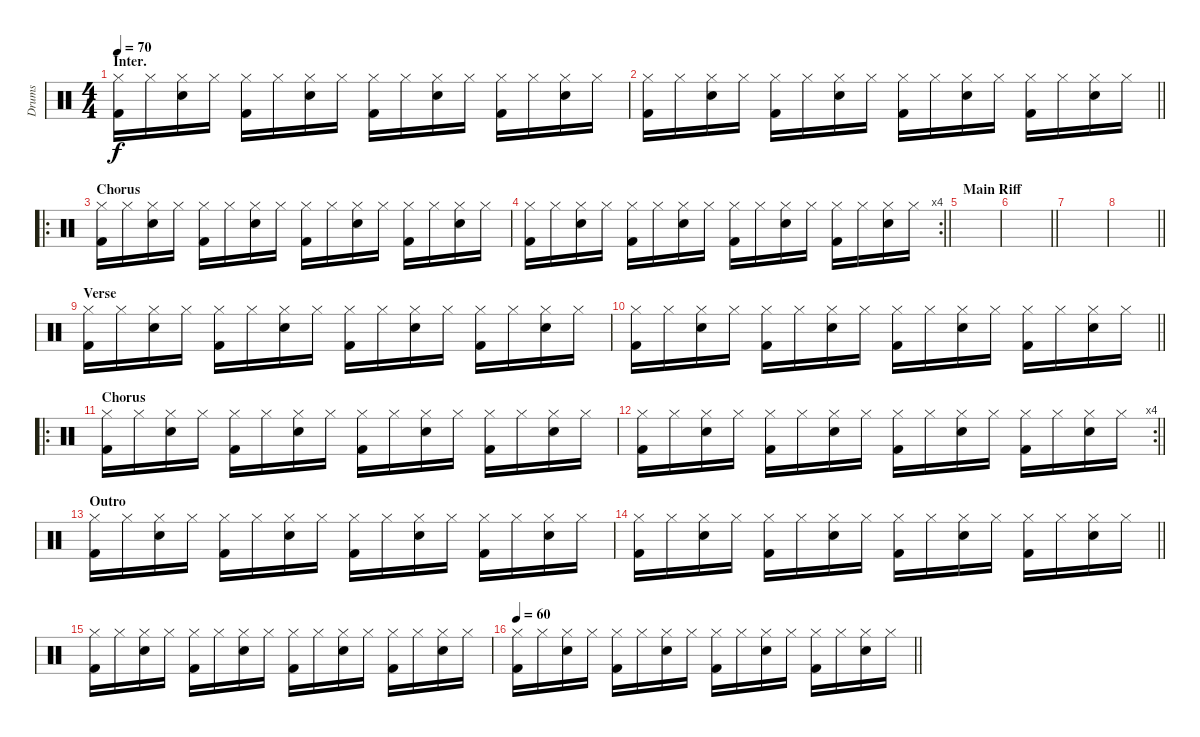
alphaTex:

\track ("Drums" "Drums") {instrument percussion}
\staff {score}
\articulation defaults
\ts (4 4)
\section ("" "Inter.")
\tempo 70
\clef neutral
\ks c
("Hi-Hat (closed)" "Kick (hit) 2").16{dy f} "Hi-Hat (closed)".16 ("Hi-Hat (closed)" "Electric Snare (hit)").16 "Hi-Hat (closed)".16 ("Hi-Hat (closed)" "Kick (hit) 2").16 "Hi-Hat (closed)".16 ("Hi-Hat (closed)" "Electric Snare (hit)").16 "Hi-Hat (closed)".16 ("Hi-Hat (closed)" "Kick (hit) 2").16 "Hi-Hat (closed)".16 ("Hi-Hat (closed)" "Electric Snare (hit)").16 "Hi-Hat (closed)".16 ("Hi-Hat (closed)" "Kick (hit) 2").16 "Hi-Hat (closed)".16 ("Hi-Hat (closed)" "Electric Snare (hit)").16 "Hi-Hat (closed)".16 |
\barLineRight lightlight
("Hi-Hat (closed)" "Kick (hit) 2").16 "Hi-Hat (closed)".16 ("Hi-Hat (closed)" "Electric Snare (hit)").16 "Hi-Hat (closed)".16 ("Hi-Hat (closed)" "Kick (hit) 2").16 "Hi-Hat (closed)".16 ("Hi-Hat (closed)" "Electric Snare (hit)").16 "Hi-Hat (closed)".16 ("Hi-Hat (closed)" "Kick (hit) 2").16 "Hi-Hat (closed)".16 ("Hi-Hat (closed)" "Electric Snare (hit)").16 "Hi-Hat (closed)".16 ("Hi-Hat (closed)" "Kick (hit) 2").16 "Hi-Hat (closed)".16 ("Hi-Hat (closed)" "Electric Snare (hit)").16 "Hi-Hat (closed)".16 |
\ro
\section ("" "Chorus")
("Hi-Hat (closed)" "Kick (hit) 2").16 "Hi-Hat (closed)".16 ("Hi-Hat (closed)" "Electric Snare (hit)").16 "Hi-Hat (closed)".16 ("Hi-Hat (closed)" "Kick (hit) 2").16 "Hi-Hat (closed)".16 ("Hi-Hat (closed)" "Electric Snare (hit)").16 "Hi-Hat (closed)".16 ("Hi-Hat (closed)" "Kick (hit) 2").16 "Hi-Hat (closed)".16 ("Hi-Hat (closed)" "Electric Snare (hit)").16 "Hi-Hat (closed)".16 ("Hi-Hat (closed)" "Kick (hit) 2").16 "Hi-Hat (closed)".16 ("Hi-Hat (closed)" "Electric Snare (hit)").16 "Hi-Hat (closed)".16 |
\rc 4
\barLineRight lightlight
("Hi-Hat (closed)" "Kick (hit) 2").16 "Hi-Hat (closed)".16 ("Hi-Hat (closed)" "Electric Snare (hit)").16 "Hi-Hat (closed)".16 ("Hi-Hat (closed)" "Kick (hit) 2").16 "Hi-Hat (closed)".16 ("Hi-Hat (closed)" "Electric Snare (hit)").16 "Hi-Hat (closed)".16 ("Hi-Hat (closed)" "Kick (hit) 2").16 "Hi-Hat (closed)".16 ("Hi-Hat (closed)" "Electric Snare (hit)").16 "Hi-Hat (closed)".16 ("Hi-Hat (closed)" "Kick (hit) 2").16 "Hi-Hat (closed)".16 ("Hi-Hat (closed)" "Electric Snare (hit)").16 "Hi-Hat (closed)".16 |
\section ("" "Main Riff")
|
\barLineRight lightlight
|
|
\barLineRight lightlight
|
\section ("" "Verse")
("Hi-Hat (closed)" "Kick (hit) 2").16 "Hi-Hat (closed)".16 ("Hi-Hat (closed)" "Electric Snare (hit)").16 "Hi-Hat (closed)".16 ("Hi-Hat (closed)" "Kick (hit) 2").16 "Hi-Hat (closed)".16 ("Hi-Hat (closed)" "Electric Snare (hit)").16 "Hi-Hat (closed)".16 ("Hi-Hat (closed)" "Kick (hit) 2").16 "Hi-Hat (closed)".16 ("Hi-Hat (closed)" "Electric Snare (hit)").16 "Hi-Hat (closed)".16 ("Hi-Hat (closed)" "Kick (hit) 2").16 "Hi-Hat (closed)".16 ("Hi-Hat (closed)" "Electric Snare (hit)").16 "Hi-Hat (closed)".16 |
\barLineRight lightlight
("Hi-Hat (closed)" "Kick (hit) 2").16 "Hi-Hat (closed)".16 ("Hi-Hat (closed)" "Electric Snare (hit)").16 "Hi-Hat (closed)".16 ("Hi-Hat (closed)" "Kick (hit) 2").16 "Hi-Hat (closed)".16 ("Hi-Hat (closed)" "Electric Snare (hit)").16 "Hi-Hat (closed)".16 ("Hi-Hat (closed)" "Kick (hit) 2").16 "Hi-Hat (closed)".16 ("Hi-Hat (closed)" "Electric Snare (hit)").16 "Hi-Hat (closed)".16 ("Hi-Hat (closed)" "Kick (hit) 2").16 "Hi-Hat (closed)".16 ("Hi-Hat (closed)" "Electric Snare (hit)").16 "Hi-Hat (closed)".16 |
\ro
\section ("" "Chorus")
("Hi-Hat (closed)" "Kick (hit) 2").16 "Hi-Hat (closed)".16 ("Hi-Hat (closed)" "Electric Snare (hit)").16 "Hi-Hat (closed)".16 ("Hi-Hat (closed)" "Kick (hit) 2").16 "Hi-Hat (closed)".16 ("Hi-Hat (closed)" "Electric Snare (hit)").16 "Hi-Hat (closed)".16 ("Hi-Hat (closed)" "Kick (hit) 2").16 "Hi-Hat (closed)".16 ("Hi-Hat (closed)" "Electric Snare (hit)").16 "Hi-Hat (closed)".16 ("Hi-Hat (closed)" "Kick (hit) 2").16 "Hi-Hat (closed)".16 ("Hi-Hat (closed)" "Electric Snare (hit)").16 "Hi-Hat (closed)".16 |
\rc 4
\barLineRight lightlight
("Hi-Hat (closed)" "Kick (hit) 2").16 "Hi-Hat (closed)".16 ("Hi-Hat (closed)" "Electric Snare (hit)").16 "Hi-Hat (closed)".16 ("Hi-Hat (closed)" "Kick (hit) 2").16 "Hi-Hat (closed)".16 ("Hi-Hat (closed)" "Electric Snare (hit)").16 "Hi-Hat (closed)".16 ("Hi-Hat (closed)" "Kick (hit) 2").16 "Hi-Hat (closed)".16 ("Hi-Hat (closed)" "Electric Snare (hit)").16 "Hi-Hat (closed)".16 ("Hi-Hat (closed)" "Kick (hit) 2").16 "Hi-Hat (closed)".16 ("Hi-Hat (closed)" "Electric Snare (hit)").16 "Hi-Hat (closed)".16 |
\section ("" "Outro")
("Hi-Hat (closed)" "Kick (hit) 2").16 "Hi-Hat (closed)".16 ("Hi-Hat (closed)" "Electric Snare (hit)").16 "Hi-Hat (closed)".16 ("Hi-Hat (closed)" "Kick (hit) 2").16 "Hi-Hat (closed)".16 ("Hi-Hat (closed)" "Electric Snare (hit)").16 "Hi-Hat (closed)".16 ("Hi-Hat (closed)" "Kick (hit) 2").16 "Hi-Hat (closed)".16 ("Hi-Hat (closed)" "Electric Snare (hit)").16 "Hi-Hat (closed)".16 ("Hi-Hat (closed)" "Kick (hit) 2").16 "Hi-Hat (closed)".16 ("Hi-Hat (closed)" "Electric Snare (hit)").16 "Hi-Hat (closed)".16 |
\barLineRight lightlight
("Hi-Hat (closed)" "Kick (hit) 2").16 "Hi-Hat (closed)".16 ("Hi-Hat (closed)" "Electric Snare (hit)").16 "Hi-Hat (closed)".16 ("Hi-Hat (closed)" "Kick (hit) 2").16 "Hi-Hat (closed)".16 ("Hi-Hat (closed)" "Electric Snare (hit)").16 "Hi-Hat (closed)".16 ("Hi-Hat (closed)" "Kick (hit) 2").16 "Hi-Hat (closed)".16 ("Hi-Hat (closed)" "Electric Snare (hit)").16 "Hi-Hat (closed)".16 ("Hi-Hat (closed)" "Kick (hit) 2").16 "Hi-Hat (closed)".16 ("Hi-Hat (closed)" "Electric Snare (hit)").16 "Hi-Hat (closed)".16 |
("Hi-Hat (closed)" "Kick (hit) 2").16 "Hi-Hat (closed)".16 ("Hi-Hat (closed)" "Electric Snare (hit)").16 "Hi-Hat (closed)".16 ("Hi-Hat (closed)" "Kick (hit) 2").16 "Hi-Hat (closed)".16 ("Hi-Hat (closed)" "Electric Snare (hit)").16 "Hi-Hat (closed)".16 ("Hi-Hat (closed)" "Kick (hit) 2").16 "Hi-Hat (closed)".16 ("Hi-Hat (closed)" "Electric Snare (hit)").16 "Hi-Hat (closed)".16 ("Hi-Hat (closed)" "Kick (hit) 2").16 "Hi-Hat (closed)".16 ("Hi-Hat (closed)" "Electric Snare (hit)").16 "Hi-Hat (closed)".16 |
\tempo 60
\barLineRight lightlight
("Hi-Hat (closed)" "Kick (hit) 2").16 "Hi-Hat (closed)".16 ("Hi-Hat (closed)" "Electric Snare (hit)").16 "Hi-Hat (closed)".16 ("Hi-Hat (closed)" "Kick (hit) 2").16 "Hi-Hat (closed)".16 ("Hi-Hat (closed)" "Electric Snare (hit)").16 "Hi-Hat (closed)".16 ("Hi-Hat (closed)" "Kick (hit) 2").16 "Hi-Hat (closed)".16 ("Hi-Hat (closed)" "Electric Snare (hit)").16 "Hi-Hat (closed)".16 ("Hi-Hat (closed)" "Kick (hit) 2").16 "Hi-Hat (closed)".16 ("Hi-Hat (closed)" "Electric Snare (hit)").16 "Hi-Hat (closed)".16
